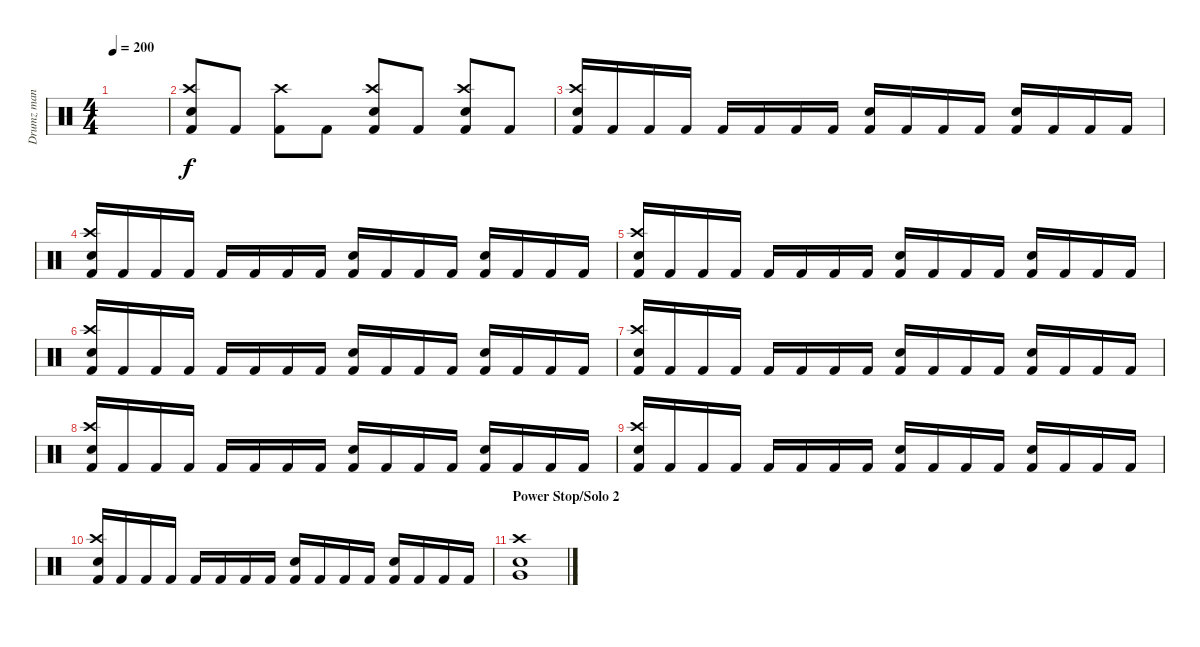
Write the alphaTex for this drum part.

\track ("Drumz man" "Drumz man") {instrument percussion}
\staff {score}
\articulation defaults
\ts (4 4)
\tempo 200
\clef neutral
\ks c
|
("Kick (hit) 2" "Crash high (hit)" "Snare (hit) 2").8 "Kick (hit) 2".8 ("Kick (hit) 2" "Crash high (hit)").8 "Kick (hit) 2".8 ("Kick (hit) 2" "Crash high (hit)" "Snare (hit) 2").8 "Kick (hit) 2".8 ("Kick (hit) 2" "Crash high (hit)" "Snare (hit) 2").8 "Kick (hit) 2".8 |
("Crash high (hit)" "Kick (hit) 2" "Electric Snare (hit)").16 "Kick (hit) 2".16 "Kick (hit) 2".16 "Kick (hit) 2".16 "Kick (hit) 2".16 "Kick (hit) 2".16 "Kick (hit) 2".16 "Kick (hit) 2".16 ("Kick (hit) 2" "Electric Snare (hit)").16 "Kick (hit) 2".16 "Kick (hit) 2".16 "Kick (hit) 2".16 ("Kick (hit) 2" "Electric Snare (hit)").16 "Kick (hit) 2".16 "Kick (hit) 2".16 "Kick (hit) 2".16 |
("Crash high (hit)" "Kick (hit) 2" "Electric Snare (hit)").16 "Kick (hit) 2".16 "Kick (hit) 2".16 "Kick (hit) 2".16 "Kick (hit) 2".16 "Kick (hit) 2".16 "Kick (hit) 2".16 "Kick (hit) 2".16 ("Kick (hit) 2" "Electric Snare (hit)").16 "Kick (hit) 2".16 "Kick (hit) 2".16 "Kick (hit) 2".16 ("Kick (hit) 2" "Electric Snare (hit)").16 "Kick (hit) 2".16 "Kick (hit) 2".16 "Kick (hit) 2".16 |
("Crash high (hit)" "Kick (hit) 2" "Electric Snare (hit)").16 "Kick (hit) 2".16 "Kick (hit) 2".16 "Kick (hit) 2".16 "Kick (hit) 2".16 "Kick (hit) 2".16 "Kick (hit) 2".16 "Kick (hit) 2".16 ("Kick (hit) 2" "Electric Snare (hit)").16 "Kick (hit) 2".16 "Kick (hit) 2".16 "Kick (hit) 2".16 ("Kick (hit) 2" "Electric Snare (hit)").16 "Kick (hit) 2".16 "Kick (hit) 2".16 "Kick (hit) 2".16 |
("Crash high (hit)" "Kick (hit) 2" "Electric Snare (hit)").16 "Kick (hit) 2".16 "Kick (hit) 2".16 "Kick (hit) 2".16 "Kick (hit) 2".16 "Kick (hit) 2".16 "Kick (hit) 2".16 "Kick (hit) 2".16 ("Kick (hit) 2" "Electric Snare (hit)").16 "Kick (hit) 2".16 "Kick (hit) 2".16 "Kick (hit) 2".16 ("Kick (hit) 2" "Electric Snare (hit)").16 "Kick (hit) 2".16 "Kick (hit) 2".16 "Kick (hit) 2".16 |
("Crash high (hit)" "Kick (hit) 2" "Electric Snare (hit)").16 "Kick (hit) 2".16 "Kick (hit) 2".16 "Kick (hit) 2".16 "Kick (hit) 2".16 "Kick (hit) 2".16 "Kick (hit) 2".16 "Kick (hit) 2".16 ("Kick (hit) 2" "Electric Snare (hit)").16 "Kick (hit) 2".16 "Kick (hit) 2".16 "Kick (hit) 2".16 ("Kick (hit) 2" "Electric Snare (hit)").16 "Kick (hit) 2".16 "Kick (hit) 2".16 "Kick (hit) 2".16 |
("Crash high (hit)" "Kick (hit) 2" "Electric Snare (hit)").16 "Kick (hit) 2".16 "Kick (hit) 2".16 "Kick (hit) 2".16 "Kick (hit) 2".16 "Kick (hit) 2".16 "Kick (hit) 2".16 "Kick (hit) 2".16 ("Kick (hit) 2" "Electric Snare (hit)").16 "Kick (hit) 2".16 "Kick (hit) 2".16 "Kick (hit) 2".16 ("Kick (hit) 2" "Electric Snare (hit)").16 "Kick (hit) 2".16 "Kick (hit) 2".16 "Kick (hit) 2".16 |
("Crash high (hit)" "Kick (hit) 2" "Electric Snare (hit)").16 "Kick (hit) 2".16 "Kick (hit) 2".16 "Kick (hit) 2".16 "Kick (hit) 2".16 "Kick (hit) 2".16 "Kick (hit) 2".16 "Kick (hit) 2".16 ("Kick (hit) 2" "Electric Snare (hit)").16 "Kick (hit) 2".16 "Kick (hit) 2".16 "Kick (hit) 2".16 ("Kick (hit) 2" "Electric Snare (hit)").16 "Kick (hit) 2".16 "Kick (hit) 2".16 "Kick (hit) 2".16 |
("Crash high (hit)" "Kick (hit) 2" "Electric Snare (hit)").16 "Kick (hit) 2".16 "Kick (hit) 2".16 "Kick (hit) 2".16 "Kick (hit) 2".16 "Kick (hit) 2".16 "Kick (hit) 2".16 "Kick (hit) 2".16 ("Kick (hit) 2" "Electric Snare (hit)").16 "Kick (hit) 2".16 "Kick (hit) 2".16 "Kick (hit) 2".16 ("Kick (hit) 2" "Electric Snare (hit)").16 "Kick (hit) 2".16 "Kick (hit) 2".16 "Kick (hit) 2".16 |
\section ("" "Power Stop/Solo 2")
("Crash high (hit)" "Very Low Tom (hit)" "Electric Snare (hit)").1
